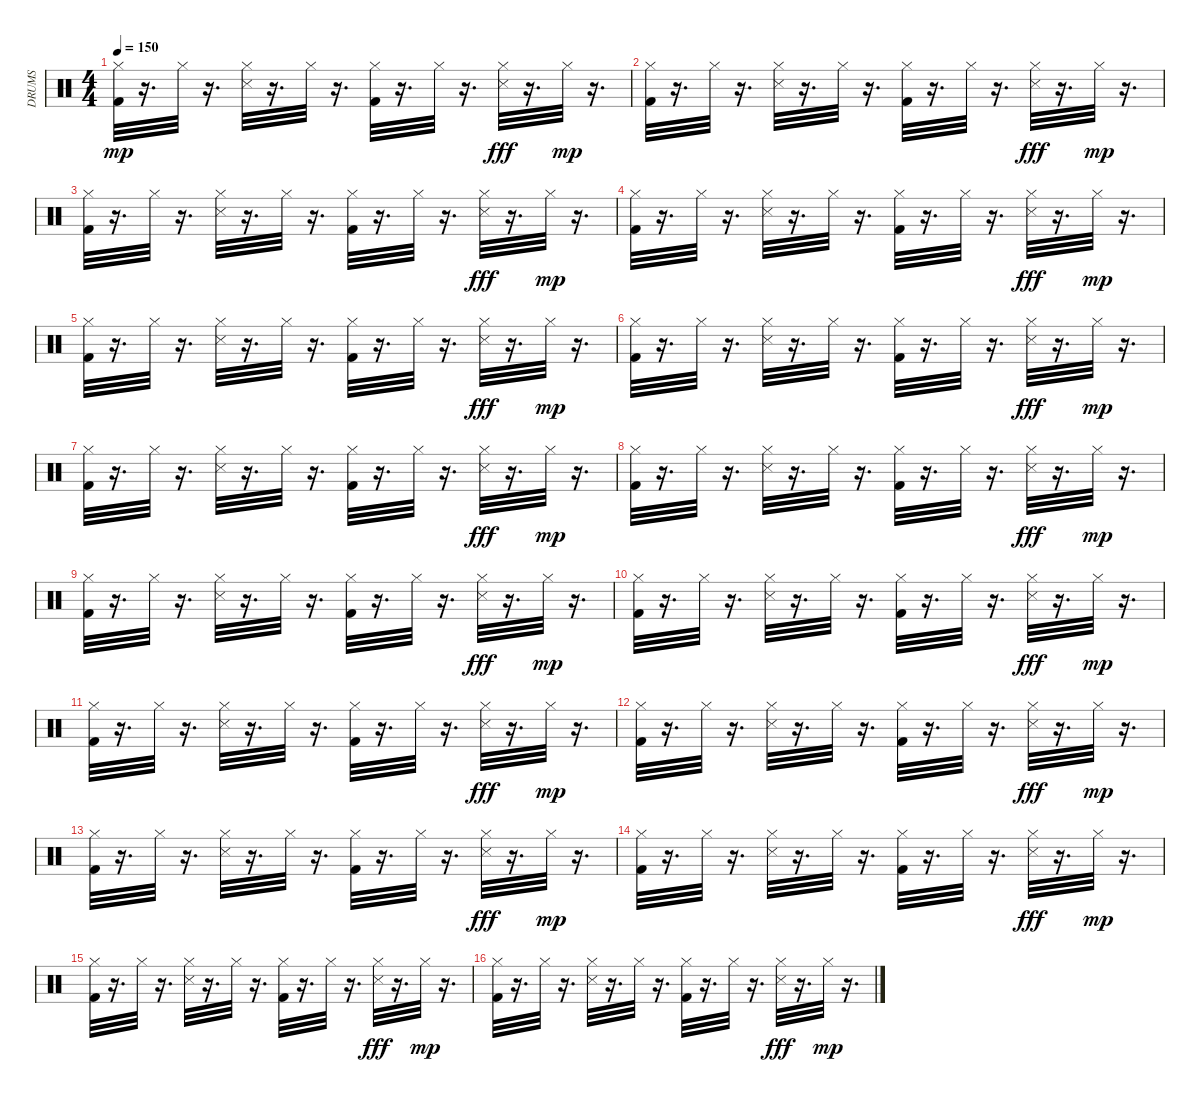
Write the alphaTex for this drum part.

\track ("DRUMS" "DRUMS") {instrument percussion}
\staff {score}
\articulation defaults
\ts (4 4)
\tempo 150
\clef neutral
\ks c
("Hi-Hat (closed)" "Kick (hit) 2").32{dy mp} r.16{d} "Hi-Hat (closed)".32 r.16{d} ("Snare (side stick) 3" "Hi-Hat (closed)").32 r.16{d} "Hi-Hat (closed)".32 r.16{d} ("Kick (hit) 2" "Hi-Hat (closed)").32 r.16{d} "Hi-Hat (closed)".32 r.16{d} ("Hi-Hat (closed)" "Snare (side stick) 3").32{dy fff} r.16{d} "Hi-Hat (closed)".32{dy mp} r.16{d} |
("Hi-Hat (closed)" "Kick (hit) 2").32 r.16{d} "Hi-Hat (closed)".32 r.16{d} ("Snare (side stick) 3" "Hi-Hat (closed)").32 r.16{d} "Hi-Hat (closed)".32 r.16{d} ("Kick (hit) 2" "Hi-Hat (closed)").32 r.16{d} "Hi-Hat (closed)".32 r.16{d} ("Hi-Hat (closed)" "Snare (side stick) 3").32{dy fff} r.16{d} "Hi-Hat (closed)".32{dy mp} r.16{d} |
("Hi-Hat (closed)" "Kick (hit) 2").32 r.16{d} "Hi-Hat (closed)".32 r.16{d} ("Snare (side stick) 3" "Hi-Hat (closed)").32 r.16{d} "Hi-Hat (closed)".32 r.16{d} ("Kick (hit) 2" "Hi-Hat (closed)").32 r.16{d} "Hi-Hat (closed)".32 r.16{d} ("Hi-Hat (closed)" "Snare (side stick) 3").32{dy fff} r.16{d} "Hi-Hat (closed)".32{dy mp} r.16{d} |
("Hi-Hat (closed)" "Kick (hit) 2").32 r.16{d} "Hi-Hat (closed)".32 r.16{d} ("Snare (side stick) 3" "Hi-Hat (closed)").32 r.16{d} "Hi-Hat (closed)".32 r.16{d} ("Kick (hit) 2" "Hi-Hat (closed)").32 r.16{d} "Hi-Hat (closed)".32 r.16{d} ("Hi-Hat (closed)" "Snare (side stick) 3").32{dy fff} r.16{d} "Hi-Hat (closed)".32{dy mp} r.16{d} |
("Hi-Hat (closed)" "Kick (hit) 2").32 r.16{d} "Hi-Hat (closed)".32 r.16{d} ("Snare (side stick) 3" "Hi-Hat (closed)").32 r.16{d} "Hi-Hat (closed)".32 r.16{d} ("Kick (hit) 2" "Hi-Hat (closed)").32 r.16{d} "Hi-Hat (closed)".32 r.16{d} ("Hi-Hat (closed)" "Snare (side stick) 3").32{dy fff} r.16{d} "Hi-Hat (closed)".32{dy mp} r.16{d} |
("Hi-Hat (closed)" "Kick (hit) 2").32 r.16{d} "Hi-Hat (closed)".32 r.16{d} ("Snare (side stick) 3" "Hi-Hat (closed)").32 r.16{d} "Hi-Hat (closed)".32 r.16{d} ("Kick (hit) 2" "Hi-Hat (closed)").32 r.16{d} "Hi-Hat (closed)".32 r.16{d} ("Hi-Hat (closed)" "Snare (side stick) 3").32{dy fff} r.16{d} "Hi-Hat (closed)".32{dy mp} r.16{d} |
("Hi-Hat (closed)" "Kick (hit) 2").32 r.16{d} "Hi-Hat (closed)".32 r.16{d} ("Snare (side stick) 3" "Hi-Hat (closed)").32 r.16{d} "Hi-Hat (closed)".32 r.16{d} ("Kick (hit) 2" "Hi-Hat (closed)").32 r.16{d} "Hi-Hat (closed)".32 r.16{d} ("Hi-Hat (closed)" "Snare (side stick) 3").32{dy fff} r.16{d} "Hi-Hat (closed)".32{dy mp} r.16{d} |
("Hi-Hat (closed)" "Kick (hit) 2").32 r.16{d} "Hi-Hat (closed)".32 r.16{d} ("Snare (side stick) 3" "Hi-Hat (closed)").32 r.16{d} "Hi-Hat (closed)".32 r.16{d} ("Kick (hit) 2" "Hi-Hat (closed)").32 r.16{d} "Hi-Hat (closed)".32 r.16{d} ("Hi-Hat (closed)" "Snare (side stick) 3").32{dy fff} r.16{d} "Hi-Hat (closed)".32{dy mp} r.16{d} |
("Hi-Hat (closed)" "Kick (hit) 2").32 r.16{d} "Hi-Hat (closed)".32 r.16{d} ("Snare (side stick) 3" "Hi-Hat (closed)").32 r.16{d} "Hi-Hat (closed)".32 r.16{d} ("Kick (hit) 2" "Hi-Hat (closed)").32 r.16{d} "Hi-Hat (closed)".32 r.16{d} ("Hi-Hat (closed)" "Snare (side stick) 3").32{dy fff} r.16{d} "Hi-Hat (closed)".32{dy mp} r.16{d} |
("Hi-Hat (closed)" "Kick (hit) 2").32 r.16{d} "Hi-Hat (closed)".32 r.16{d} ("Snare (side stick) 3" "Hi-Hat (closed)").32 r.16{d} "Hi-Hat (closed)".32 r.16{d} ("Kick (hit) 2" "Hi-Hat (closed)").32 r.16{d} "Hi-Hat (closed)".32 r.16{d} ("Hi-Hat (closed)" "Snare (side stick) 3").32{dy fff} r.16{d} "Hi-Hat (closed)".32{dy mp} r.16{d} |
("Hi-Hat (closed)" "Kick (hit) 2").32 r.16{d} "Hi-Hat (closed)".32 r.16{d} ("Snare (side stick) 3" "Hi-Hat (closed)").32 r.16{d} "Hi-Hat (closed)".32 r.16{d} ("Kick (hit) 2" "Hi-Hat (closed)").32 r.16{d} "Hi-Hat (closed)".32 r.16{d} ("Hi-Hat (closed)" "Snare (side stick) 3").32{dy fff} r.16{d} "Hi-Hat (closed)".32{dy mp} r.16{d} |
("Hi-Hat (closed)" "Kick (hit) 2").32 r.16{d} "Hi-Hat (closed)".32 r.16{d} ("Snare (side stick) 3" "Hi-Hat (closed)").32 r.16{d} "Hi-Hat (closed)".32 r.16{d} ("Kick (hit) 2" "Hi-Hat (closed)").32 r.16{d} "Hi-Hat (closed)".32 r.16{d} ("Hi-Hat (closed)" "Snare (side stick) 3").32{dy fff} r.16{d} "Hi-Hat (closed)".32{dy mp} r.16{d} |
("Hi-Hat (closed)" "Kick (hit) 2").32 r.16{d} "Hi-Hat (closed)".32 r.16{d} ("Snare (side stick) 3" "Hi-Hat (closed)").32 r.16{d} "Hi-Hat (closed)".32 r.16{d} ("Kick (hit) 2" "Hi-Hat (closed)").32 r.16{d} "Hi-Hat (closed)".32 r.16{d} ("Hi-Hat (closed)" "Snare (side stick) 3").32{dy fff} r.16{d} "Hi-Hat (closed)".32{dy mp} r.16{d} |
("Hi-Hat (closed)" "Kick (hit) 2").32 r.16{d} "Hi-Hat (closed)".32 r.16{d} ("Snare (side stick) 3" "Hi-Hat (closed)").32 r.16{d} "Hi-Hat (closed)".32 r.16{d} ("Kick (hit) 2" "Hi-Hat (closed)").32 r.16{d} "Hi-Hat (closed)".32 r.16{d} ("Hi-Hat (closed)" "Snare (side stick) 3").32{dy fff} r.16{d} "Hi-Hat (closed)".32{dy mp} r.16{d} |
("Hi-Hat (closed)" "Kick (hit) 2").32 r.16{d} "Hi-Hat (closed)".32 r.16{d} ("Snare (side stick) 3" "Hi-Hat (closed)").32 r.16{d} "Hi-Hat (closed)".32 r.16{d} ("Kick (hit) 2" "Hi-Hat (closed)").32 r.16{d} "Hi-Hat (closed)".32 r.16{d} ("Hi-Hat (closed)" "Snare (side stick) 3").32{dy fff} r.16{d} "Hi-Hat (closed)".32{dy mp} r.16{d} |
("Hi-Hat (closed)" "Kick (hit) 2").32 r.16{d} "Hi-Hat (closed)".32 r.16{d} ("Snare (side stick) 3" "Hi-Hat (closed)").32 r.16{d} "Hi-Hat (closed)".32 r.16{d} ("Kick (hit) 2" "Hi-Hat (closed)").32 r.16{d} "Hi-Hat (closed)".32 r.16{d} ("Hi-Hat (closed)" "Snare (side stick) 3").32{dy fff} r.16{d} "Hi-Hat (closed)".32{dy mp} r.16{d}
